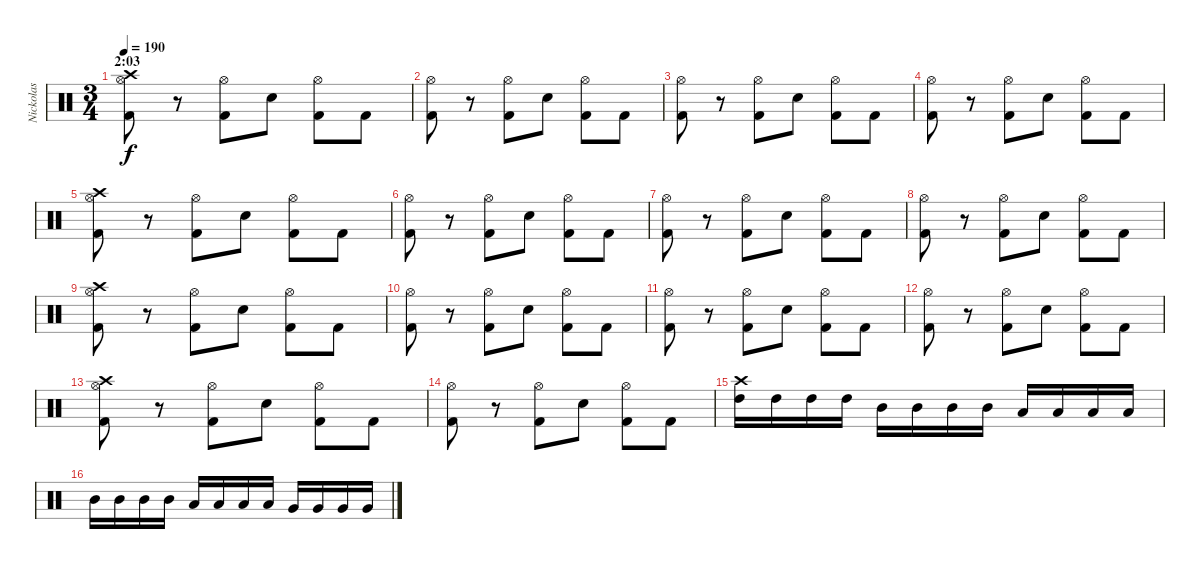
\track ("Nickolas " "Nickolas ") {instrument percussion}
\staff {score}
\articulation defaults
\ts (3 4)
\section ("" "2:03")
\tempo 190
\clef neutral
\ks c
("Kick (hit) 2" "Crash high (hit)" "Hi-Hat (open)").8{dy f} r.8 ("Kick (hit) 2" "Hi-Hat (open)").8 "Snare (hit) 2".8 ("Kick (hit) 2" "Hi-Hat (open)").8 "Kick (hit) 2".8 |
("Kick (hit) 2" "Hi-Hat (open)").8 r.8 ("Kick (hit) 2" "Hi-Hat (open)").8 "Snare (hit) 2".8 ("Kick (hit) 2" "Hi-Hat (open)").8 "Kick (hit) 2".8 |
("Kick (hit) 2" "Hi-Hat (open)").8 r.8 ("Kick (hit) 2" "Hi-Hat (open)").8 "Snare (hit) 2".8 ("Kick (hit) 2" "Hi-Hat (open)").8 "Kick (hit) 2".8 |
("Kick (hit) 2" "Hi-Hat (open)").8 r.8 ("Kick (hit) 2" "Hi-Hat (open)").8 "Snare (hit) 2".8 ("Kick (hit) 2" "Hi-Hat (open)").8 "Kick (hit) 2".8 |
("Kick (hit) 2" "Crash high (hit)" "Hi-Hat (open)").8 r.8 ("Kick (hit) 2" "Hi-Hat (open)").8 "Snare (hit) 2".8 ("Kick (hit) 2" "Hi-Hat (open)").8 "Kick (hit) 2".8 |
("Kick (hit) 2" "Hi-Hat (open)").8 r.8 ("Kick (hit) 2" "Hi-Hat (open)").8 "Snare (hit) 2".8 ("Kick (hit) 2" "Hi-Hat (open)").8 "Kick (hit) 2".8 |
("Kick (hit) 2" "Hi-Hat (open)").8 r.8 ("Kick (hit) 2" "Hi-Hat (open)").8 "Snare (hit) 2".8 ("Kick (hit) 2" "Hi-Hat (open)").8 "Kick (hit) 2".8 |
("Kick (hit) 2" "Hi-Hat (open)").8 r.8 ("Kick (hit) 2" "Hi-Hat (open)").8 "Snare (hit) 2".8 ("Kick (hit) 2" "Hi-Hat (open)").8 "Kick (hit) 2".8 |
("Kick (hit) 2" "Crash high (hit)" "Hi-Hat (open)").8 r.8 ("Kick (hit) 2" "Hi-Hat (open)").8 "Snare (hit) 2".8 ("Kick (hit) 2" "Hi-Hat (open)").8 "Kick (hit) 2".8 |
("Kick (hit) 2" "Hi-Hat (open)").8 r.8 ("Kick (hit) 2" "Hi-Hat (open)").8 "Snare (hit) 2".8 ("Kick (hit) 2" "Hi-Hat (open)").8 "Kick (hit) 2".8 |
("Kick (hit) 2" "Hi-Hat (open)").8 r.8 ("Kick (hit) 2" "Hi-Hat (open)").8 "Snare (hit) 2".8 ("Kick (hit) 2" "Hi-Hat (open)").8 "Kick (hit) 2".8 |
("Kick (hit) 2" "Hi-Hat (open)").8 r.8 ("Kick (hit) 2" "Hi-Hat (open)").8 "Snare (hit) 2".8 ("Kick (hit) 2" "Hi-Hat (open)").8 "Kick (hit) 2".8 |
("Kick (hit) 2" "Crash high (hit)" "Hi-Hat (open)").8 r.8 ("Kick (hit) 2" "Hi-Hat (open)").8 "Snare (hit) 2".8 ("Kick (hit) 2" "Hi-Hat (open)").8 "Kick (hit) 2".8 |
("Kick (hit) 2" "Hi-Hat (open)").8 r.8 ("Kick (hit) 2" "Hi-Hat (open)").8 "Snare (hit) 2".8 ("Kick (hit) 2" "Hi-Hat (open)").8 "Kick (hit) 2".8 |
("High Tom (hit)" "Crash high (hit)").16 "High Tom (hit)".16 "High Tom (hit)".16 "High Tom (hit)".16 "Mid Tom (hit)".16 "Mid Tom (hit)".16 "Mid Tom (hit)".16 "Mid Tom (hit)".16 "Low Tom (hit)".16 "Low Tom (hit)".16 "Low Tom (hit)".16 "Low Tom (hit)".16 |
"Mid Tom (hit)".16 "Mid Tom (hit)".16 "Mid Tom (hit)".16 "Mid Tom (hit)".16 "Low Tom (hit)".16 "Low Tom (hit)".16 "Low Tom (hit)".16 "Low Tom (hit)".16 "Very Low Tom (hit)".16 "Very Low Tom (hit)".16 "Very Low Tom (hit)".16 "Very Low Tom (hit)".16
